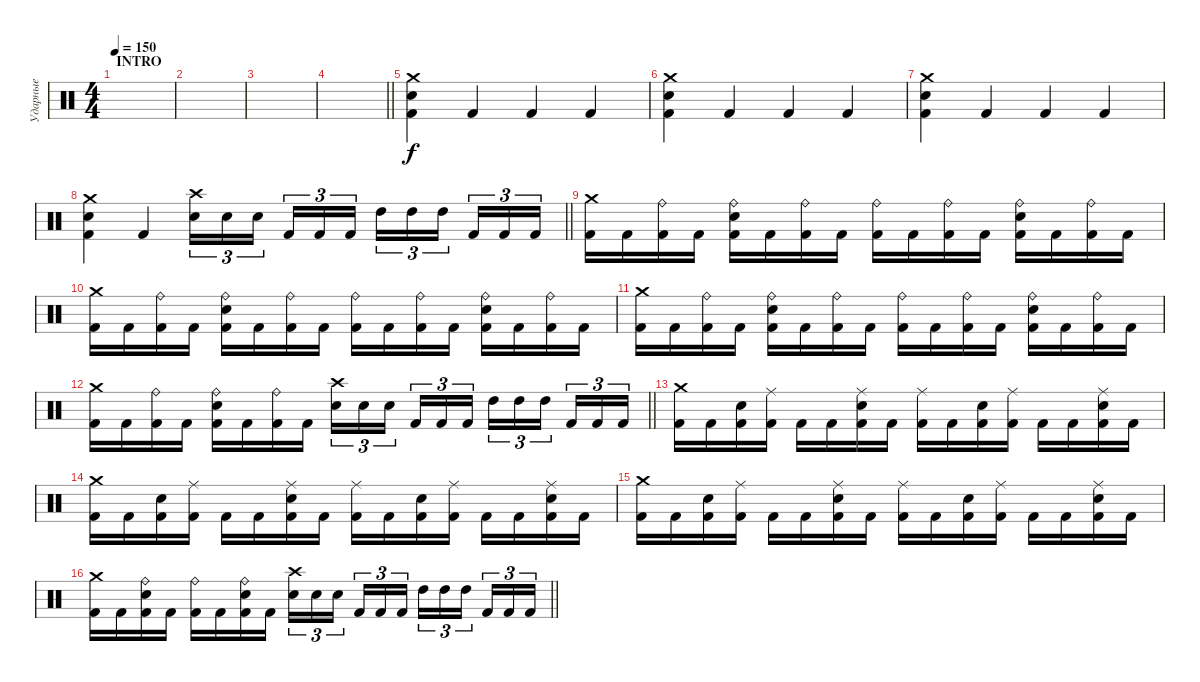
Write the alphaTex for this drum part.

\track ("Ударные" "Ударные") {instrument percussion}
\staff {score}
\articulation defaults
\ts (4 4)
\section ("" "INTRO")
\tempo 150
\clef neutral
\ks c
|
|
|
\barLineRight lightlight
|
("Kick (hit) 2" "Snare (hit) 2" "Crash medium (hit)").4 "Kick (hit) 2".4 "Kick (hit) 2".4 "Kick (hit) 2".4 |
("Kick (hit) 2" "Snare (hit) 2" "Crash medium (hit)").4 "Kick (hit) 2".4 "Kick (hit) 2".4 "Kick (hit) 2".4 |
("Kick (hit) 2" "Snare (hit) 2" "Crash medium (hit)").4 "Kick (hit) 2".4 "Kick (hit) 2".4 "Kick (hit) 2".4 |
\barLineRight lightlight
("Kick (hit) 2" "Snare (hit) 2" "Crash medium (hit)").4 "Kick (hit) 2".4 ("Snare (hit) 2" "Crash high (hit)").16{tu (3 2)} "Snare (hit) 2".16{tu (3 2)} "Snare (hit) 2".16{tu (3 2)} "Kick (hit) 2".16{tu (3 2)} "Kick (hit) 2".16{tu (3 2)} "Kick (hit) 2".16{tu (3 2)} "High Tom (hit)".16{tu (3 2)} "High Tom (hit)".16{tu (3 2)} "High Tom (hit)".16{tu (3 2)} "Kick (hit) 2".16{tu (3 2)} "Kick (hit) 2".16{tu (3 2)} "Kick (hit) 2".16{tu (3 2)} |
("Kick (hit) 2" "Crash medium (hit)").16 "Kick (hit) 2".16 ("Kick (hit) 2" "Ride (bell)").16 "Kick (hit) 2".16 ("Kick (hit) 2" "Snare (hit) 2" "Ride (bell)").16 "Kick (hit) 2".16 ("Kick (hit) 2" "Ride (bell)").16 "Kick (hit) 2".16 ("Kick (hit) 2" "Ride (bell)").16 "Kick (hit) 2".16 ("Kick (hit) 2" "Ride (bell)").16 "Kick (hit) 2".16 ("Kick (hit) 2" "Snare (hit) 2" "Ride (bell)").16 "Kick (hit) 2".16 ("Kick (hit) 2" "Ride (bell)").16 "Kick (hit) 2".16 |
("Kick (hit) 2" "Crash medium (hit)").16 "Kick (hit) 2".16 ("Kick (hit) 2" "Ride (bell)").16 "Kick (hit) 2".16 ("Kick (hit) 2" "Snare (hit) 2" "Ride (bell)").16 "Kick (hit) 2".16 ("Kick (hit) 2" "Ride (bell)").16 "Kick (hit) 2".16 ("Kick (hit) 2" "Ride (bell)").16 "Kick (hit) 2".16 ("Kick (hit) 2" "Ride (bell)").16 "Kick (hit) 2".16 ("Kick (hit) 2" "Snare (hit) 2" "Ride (bell)").16 "Kick (hit) 2".16 ("Kick (hit) 2" "Ride (bell)").16 "Kick (hit) 2".16 |
("Kick (hit) 2" "Crash medium (hit)").16 "Kick (hit) 2".16 ("Kick (hit) 2" "Ride (bell)").16 "Kick (hit) 2".16 ("Kick (hit) 2" "Snare (hit) 2" "Ride (bell)").16 "Kick (hit) 2".16 ("Kick (hit) 2" "Ride (bell)").16 "Kick (hit) 2".16 ("Kick (hit) 2" "Ride (bell)").16 "Kick (hit) 2".16 ("Kick (hit) 2" "Ride (bell)").16 "Kick (hit) 2".16 ("Kick (hit) 2" "Snare (hit) 2" "Ride (bell)").16 "Kick (hit) 2".16 ("Kick (hit) 2" "Ride (bell)").16 "Kick (hit) 2".16 |
\barLineRight lightlight
("Kick (hit) 2" "Crash medium (hit)").16 "Kick (hit) 2".16 ("Kick (hit) 2" "Ride (bell)").16 "Kick (hit) 2".16 ("Kick (hit) 2" "Snare (hit) 2" "Ride (bell)").16 "Kick (hit) 2".16 ("Kick (hit) 2" "Ride (bell)").16 "Kick (hit) 2".16 ("Snare (hit) 2" "Crash high (hit)").16{tu (3 2)} "Snare (hit) 2".16{tu (3 2)} "Snare (hit) 2".16{tu (3 2)} "Kick (hit) 2".16{tu (3 2)} "Kick (hit) 2".16{tu (3 2)} "Kick (hit) 2".16{tu (3 2)} "High Tom (hit)".16{tu (3 2)} "High Tom (hit)".16{tu (3 2)} "High Tom (hit)".16{tu (3 2)} "Kick (hit) 2".16{tu (3 2)} "Kick (hit) 2".16{tu (3 2)} "Kick (hit) 2".16{tu (3 2)} |
("Kick (hit) 2" "Crash medium (hit)").16 "Kick (hit) 2".16 ("Kick (hit) 2" "Snare (hit) 2").16 ("Kick (hit) 2" "Ride (middle)").16 "Kick (hit) 2".16 "Kick (hit) 2".16 ("Kick (hit) 2" "Snare (hit) 2" "Ride (middle)").16 "Kick (hit) 2".16 ("Kick (hit) 2" "Ride (middle)").16 "Kick (hit) 2".16 ("Kick (hit) 2" "Snare (hit) 2").16 ("Kick (hit) 2" "Ride (middle)").16 "Kick (hit) 2".16 "Kick (hit) 2".16 ("Kick (hit) 2" "Snare (hit) 2" "Ride (middle)").16 "Kick (hit) 2".16 |
("Kick (hit) 2" "Crash medium (hit)").16 "Kick (hit) 2".16 ("Kick (hit) 2" "Snare (hit) 2").16 ("Kick (hit) 2" "Ride (middle)").16 "Kick (hit) 2".16 "Kick (hit) 2".16 ("Kick (hit) 2" "Snare (hit) 2" "Ride (middle)").16 "Kick (hit) 2".16 ("Kick (hit) 2" "Ride (middle)").16 "Kick (hit) 2".16 ("Kick (hit) 2" "Snare (hit) 2").16 ("Kick (hit) 2" "Ride (middle)").16 "Kick (hit) 2".16 "Kick (hit) 2".16 ("Kick (hit) 2" "Snare (hit) 2" "Ride (middle)").16 "Kick (hit) 2".16 |
("Kick (hit) 2" "Crash medium (hit)").16 "Kick (hit) 2".16 ("Kick (hit) 2" "Snare (hit) 2").16 ("Kick (hit) 2" "Ride (middle)").16 "Kick (hit) 2".16 "Kick (hit) 2".16 ("Kick (hit) 2" "Snare (hit) 2" "Ride (middle)").16 "Kick (hit) 2".16 ("Kick (hit) 2" "Ride (middle)").16 "Kick (hit) 2".16 ("Kick (hit) 2" "Snare (hit) 2").16 ("Kick (hit) 2" "Ride (middle)").16 "Kick (hit) 2".16 "Kick (hit) 2".16 ("Kick (hit) 2" "Snare (hit) 2" "Ride (middle)").16 "Kick (hit) 2".16 |
\barLineRight lightlight
("Kick (hit) 2" "Crash medium (hit)").16 "Kick (hit) 2".16 ("Kick (hit) 2" "Snare (hit) 2" "Ride (bell)").16 "Kick (hit) 2".16 ("Kick (hit) 2" "Ride (bell)").16 "Kick (hit) 2".16 ("Kick (hit) 2" "Snare (hit) 2" "Ride (bell)").16 "Kick (hit) 2".16 ("Snare (hit) 2" "Crash high (hit)").16{tu (3 2)} "Snare (hit) 2".16{tu (3 2)} "Snare (hit) 2".16{tu (3 2)} "Kick (hit) 2".16{tu (3 2)} "Kick (hit) 2".16{tu (3 2)} "Kick (hit) 2".16{tu (3 2)} "High Tom (hit)".16{tu (3 2)} "High Tom (hit)".16{tu (3 2)} "High Tom (hit)".16{tu (3 2)} "Kick (hit) 2".16{tu (3 2)} "Kick (hit) 2".16{tu (3 2)} "Kick (hit) 2".16{tu (3 2)}
